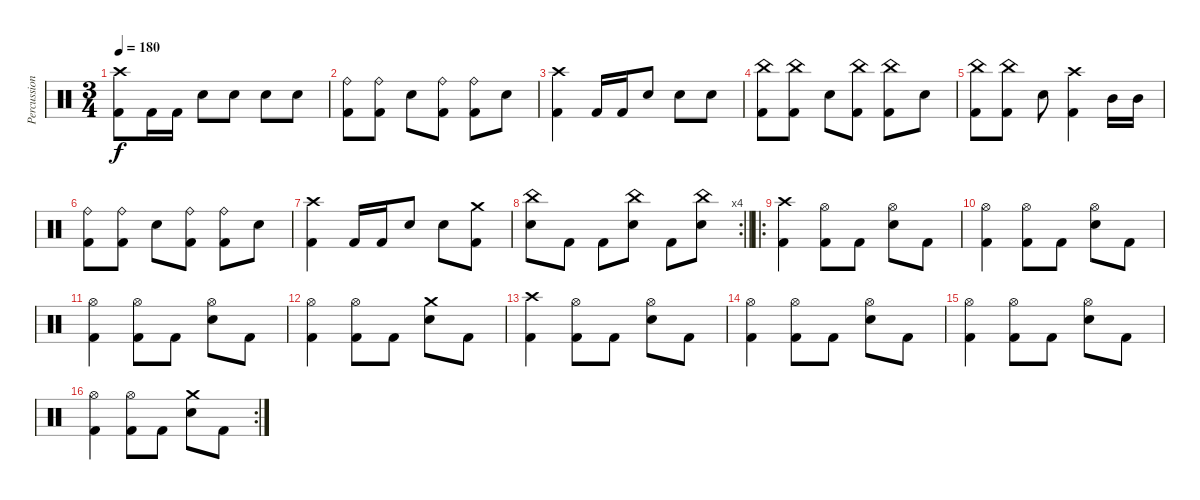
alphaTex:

\track ("Percussions" "Percussion") {instrument percussion}
\staff {score}
\articulation defaults
\ts (3 4)
\tempo 180
\clef neutral
\ks c
("Crash high (hit)" "Kick (hit) 2").8{dy f} "Kick (hit) 2".16 "Kick (hit) 2".16 "Electric Snare (hit)".8 "Electric Snare (hit)".8 "Electric Snare (hit)".8 "Electric Snare (hit)".8 |
("Ride (bell)" "Kick (hit) 2").8 ("Ride (bell)" "Kick (hit) 2").8 "Electric Snare (hit)".8 ("Ride (bell)" "Kick (hit) 2").8 ("Ride (bell)" "Kick (hit) 2").8 "Electric Snare (hit)".8 |
("Crash high (hit)" "Kick (hit) 2").4 "Kick (hit) 2".16 "Kick (hit) 2".16 "Electric Snare (hit)".8 "Electric Snare (hit)".8 "Electric Snare (hit)".8 |
("China (hit)" "Kick (hit) 2").8 ("China (hit)" "Kick (hit) 2").8 "Electric Snare (hit)".8 ("China (hit)" "Kick (hit) 2").8 ("China (hit)" "Kick (hit) 2").8 "Electric Snare (hit)".8 |
("China (hit)" "Kick (hit) 2").8 ("China (hit)" "Kick (hit) 2").8 "Electric Snare (hit)".8 ("Crash high (hit)" "Kick (hit) 2").4 "Mid Tom (hit)".16 "Mid Tom (hit)".16 |
("Ride (bell)" "Kick (hit) 2").8 ("Ride (bell)" "Kick (hit) 2").8 "Electric Snare (hit)".8 ("Ride (bell)" "Kick (hit) 2").8 ("Ride (bell)" "Kick (hit) 2").8 "Electric Snare (hit)".8 |
("Crash high (hit)" "Kick (hit) 2").4 "Kick (hit) 2".16 "Kick (hit) 2".16 "Electric Snare (hit)".8 "Electric Snare (hit)".8 ("Crash medium (hit)" "Kick (hit) 2").8 |
\rc 4
\barLineRight lightlight
("China (hit)" "Electric Snare (hit)").8 "Kick (hit) 2".8 "Kick (hit) 2".8 ("China (hit)" "Electric Snare (hit)").8 "Kick (hit) 2".8 ("China (hit)" "Electric Snare (hit)").8 |
\ro
\section ("" "")
("Crash high (hit)" "Kick (hit) 2").4 ("Hi-Hat (open)" "Kick (hit) 2").8 "Kick (hit) 2".8 ("Hi-Hat (open)" "Electric Snare (hit)").8 "Kick (hit) 2".8 |
("Hi-Hat (open)" "Kick (hit) 2").4 ("Hi-Hat (open)" "Kick (hit) 2").8 "Kick (hit) 2".8 ("Hi-Hat (open)" "Electric Snare (hit)").8 "Kick (hit) 2".8 |
("Hi-Hat (open)" "Kick (hit) 2").4 ("Hi-Hat (open)" "Kick (hit) 2").8 "Kick (hit) 2".8 ("Hi-Hat (open)" "Electric Snare (hit)").8 "Kick (hit) 2".8 |
("Hi-Hat (open)" "Kick (hit) 2").4 ("Hi-Hat (open)" "Kick (hit) 2").8 "Kick (hit) 2".8 ("Crash medium (hit)" "Electric Snare (hit)").8 "Kick (hit) 2".8 |
("Crash high (hit)" "Kick (hit) 2").4 ("Hi-Hat (open)" "Kick (hit) 2").8 "Kick (hit) 2".8 ("Hi-Hat (open)" "Electric Snare (hit)").8 "Kick (hit) 2".8 |
("Hi-Hat (open)" "Kick (hit) 2").4 ("Hi-Hat (open)" "Kick (hit) 2").8 "Kick (hit) 2".8 ("Hi-Hat (open)" "Electric Snare (hit)").8 "Kick (hit) 2".8 |
("Hi-Hat (open)" "Kick (hit) 2").4 ("Hi-Hat (open)" "Kick (hit) 2").8 "Kick (hit) 2".8 ("Hi-Hat (open)" "Electric Snare (hit)").8 "Kick (hit) 2".8 |
\rc 2
("Hi-Hat (open)" "Kick (hit) 2").4 ("Hi-Hat (open)" "Kick (hit) 2").8 "Kick (hit) 2".8 ("Crash medium (hit)" "Electric Snare (hit)").8 "Kick (hit) 2".8
